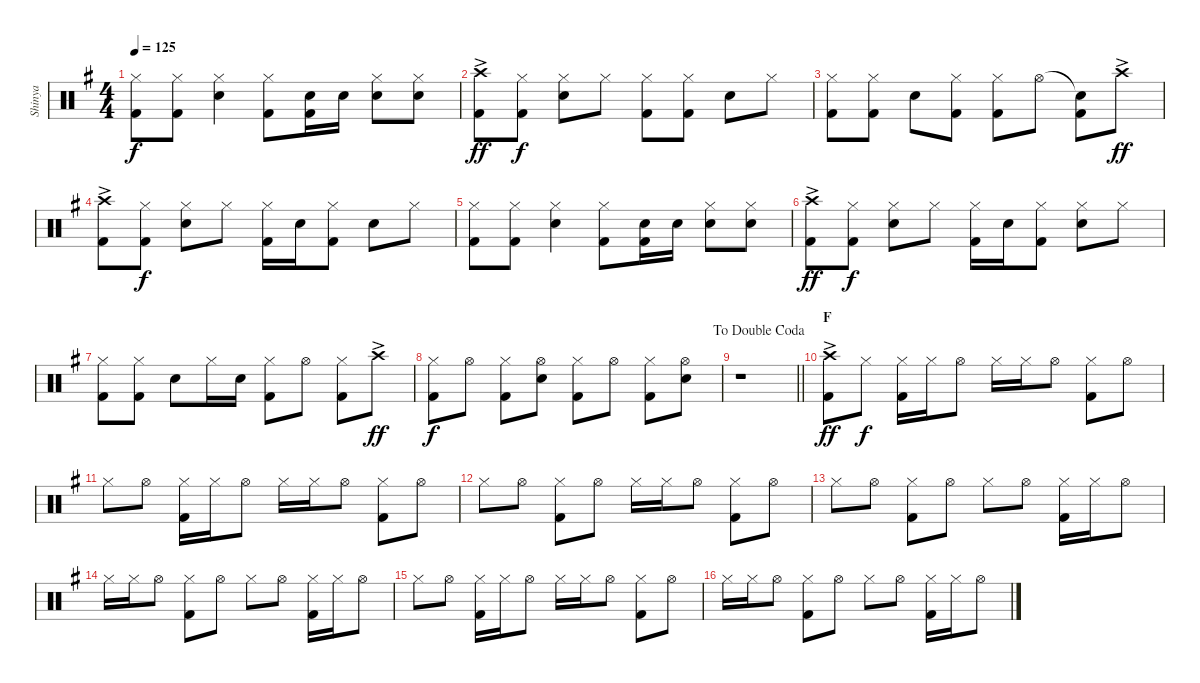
\track ("Shinya" "Shinya") {instrument percussion}
\staff {score}
\articulation defaults
\ts (4 4)
\tempo 125
\clef neutral
\ks g
("Hi-Hat (closed)" "Kick (hit) 2").8{dy f} ("Hi-Hat (closed)" "Kick (hit) 2").8 ("Hi-Hat (closed)" "Snare (hit) 2").4 ("Hi-Hat (closed)" "Kick (hit) 2").8 ("Snare (hit) 2" "Kick (hit) 2").16 "Snare (hit) 2".16 ("Hi-Hat (closed)" "Snare (hit) 2").8 ("Hi-Hat (closed)" "Snare (hit) 2").8 |
("Crash high (hit)"{ac} "Kick (hit) 2").8{dy ff} ("Hi-Hat (closed)" "Kick (hit) 2").8{dy f} ("Hi-Hat (closed)" "Snare (hit) 2").8 "Hi-Hat (closed)".8 ("Hi-Hat (closed)" "Kick (hit) 2").8 ("Hi-Hat (closed)" "Kick (hit) 2").8 "Snare (hit) 2".8 "Hi-Hat (closed)".8 |
("Hi-Hat (closed)" "Kick (hit) 2").8 ("Hi-Hat (closed)" "Kick (hit) 2").8 "Snare (hit) 2".8 ("Hi-Hat (closed)" "Kick (hit) 2").8 ("Hi-Hat (closed)" "Kick (hit) 2").8 "Hi-Hat (open)".8 ("Snare (hit)"{t} "Kick (hit) 2").8 "Crash high (hit)"{ac}.8{dy ff} |
("Crash high (hit)"{ac} "Kick (hit) 2").8 ("Hi-Hat (closed)" "Kick (hit) 2").8{dy f} ("Hi-Hat (closed)" "Snare (hit) 2").8 "Hi-Hat (closed)".8 ("Hi-Hat (closed)" "Kick (hit) 2").16 "Snare (hit) 2".16 ("Hi-Hat (closed)" "Kick (hit) 2").8 "Snare (hit) 2".8 "Hi-Hat (closed)".8 |
("Hi-Hat (closed)" "Kick (hit) 2").8 ("Hi-Hat (closed)" "Kick (hit) 2").8 ("Hi-Hat (closed)" "Snare (hit) 2").4 ("Hi-Hat (closed)" "Kick (hit) 2").8 ("Snare (hit) 2" "Kick (hit) 2").16 "Snare (hit) 2".16 ("Hi-Hat (closed)" "Snare (hit) 2").8 ("Hi-Hat (closed)" "Snare (hit) 2").8 |
("Crash high (hit)"{ac} "Kick (hit) 2").8{dy ff} ("Hi-Hat (closed)" "Kick (hit) 2").8{dy f} ("Hi-Hat (closed)" "Snare (hit) 2").8 "Hi-Hat (closed)".8 ("Hi-Hat (closed)" "Kick (hit) 2").16 "Snare (hit) 2".16 ("Hi-Hat (closed)" "Kick (hit) 2").8 ("Hi-Hat (closed)" "Snare (hit) 2").8 "Hi-Hat (closed)".8 |
("Hi-Hat (closed)" "Kick (hit) 2").8 ("Hi-Hat (closed)" "Kick (hit) 2").8 "Snare (hit) 2".8 "Hi-Hat (closed)".16 "Snare (hit) 2".16 ("Hi-Hat (closed)" "Kick (hit) 2").8 "Hi-Hat (open)".8 ("Hi-Hat (closed)" "Kick (hit) 2").8 "Crash high (hit)"{ac}.8{dy ff} |
("Hi-Hat (closed)" "Kick (hit) 2").8{dy f} "Hi-Hat (open)".8 ("Hi-Hat (closed)" "Kick (hit) 2").8 ("Hi-Hat (open)" "Snare (hit) 2").8 ("Hi-Hat (closed)" "Kick (hit) 2").8 "Hi-Hat (open)".8 ("Hi-Hat (closed)" "Kick (hit) 2").8 ("Hi-Hat (open)" "Snare (hit) 2").8 |
\jump dadoublecoda
\barLineRight lightlight
r.1 |
\section ("" "F")
("Crash high (hit)"{ac} "Kick (hit) 2").8{dy ff} "Hi-Hat (closed)".8{dy f} ("Hi-Hat (closed)" "Kick (hit) 2").16 "Hi-Hat (closed)".16 "Hi-Hat (open)".8 "Hi-Hat (closed)".16 "Hi-Hat (closed)".16 "Hi-Hat (open)".8 ("Hi-Hat (closed)" "Kick (hit) 2").8 "Hi-Hat (open)".8 |
"Hi-Hat (closed)".8 "Hi-Hat (open)".8 ("Hi-Hat (closed)" "Kick (hit) 2").16 "Hi-Hat (closed)".16 "Hi-Hat (open)".8 "Hi-Hat (closed)".16 "Hi-Hat (closed)".16 "Hi-Hat (open)".8 ("Hi-Hat (closed)" "Kick (hit) 2").8 "Hi-Hat (open)".8 |
"Hi-Hat (closed)".8 "Hi-Hat (open)".8 ("Hi-Hat (closed)" "Kick (hit) 2").8 "Hi-Hat (open)".8 "Hi-Hat (closed)".16 "Hi-Hat (closed)".16 "Hi-Hat (open)".8 ("Hi-Hat (closed)" "Kick (hit) 2").8 "Hi-Hat (open)".8 |
"Hi-Hat (closed)".8 "Hi-Hat (open)".8 ("Hi-Hat (closed)" "Kick (hit) 2").8 "Hi-Hat (open)".8 "Hi-Hat (closed)".8 "Hi-Hat (open)".8 ("Hi-Hat (closed)" "Kick (hit) 2").16 "Hi-Hat (closed)".16 "Hi-Hat (open)".8 |
"Hi-Hat (closed)".16 "Hi-Hat (closed)".16 "Hi-Hat (open)".8 ("Hi-Hat (closed)" "Kick (hit) 2").8 "Hi-Hat (open)".8 "Hi-Hat (closed)".8 "Hi-Hat (open)".8 ("Hi-Hat (closed)" "Kick (hit) 2").16 "Hi-Hat (closed)".16 "Hi-Hat (open)".8 |
"Hi-Hat (closed)".8 "Hi-Hat (open)".8 ("Hi-Hat (closed)" "Kick (hit) 2").16 "Hi-Hat (closed)".16 "Hi-Hat (open)".8 "Hi-Hat (closed)".16 "Hi-Hat (closed)".16 "Hi-Hat (open)".8 ("Hi-Hat (closed)" "Kick (hit) 2").8 "Hi-Hat (open)".8 |
"Hi-Hat (closed)".16 "Hi-Hat (closed)".16 "Hi-Hat (open)".8 ("Hi-Hat (closed)" "Kick (hit) 2").8 "Hi-Hat (open)".8 "Hi-Hat (closed)".8 "Hi-Hat (open)".8 ("Hi-Hat (closed)" "Kick (hit) 2").16 "Hi-Hat (closed)".16 "Hi-Hat (open)".8
